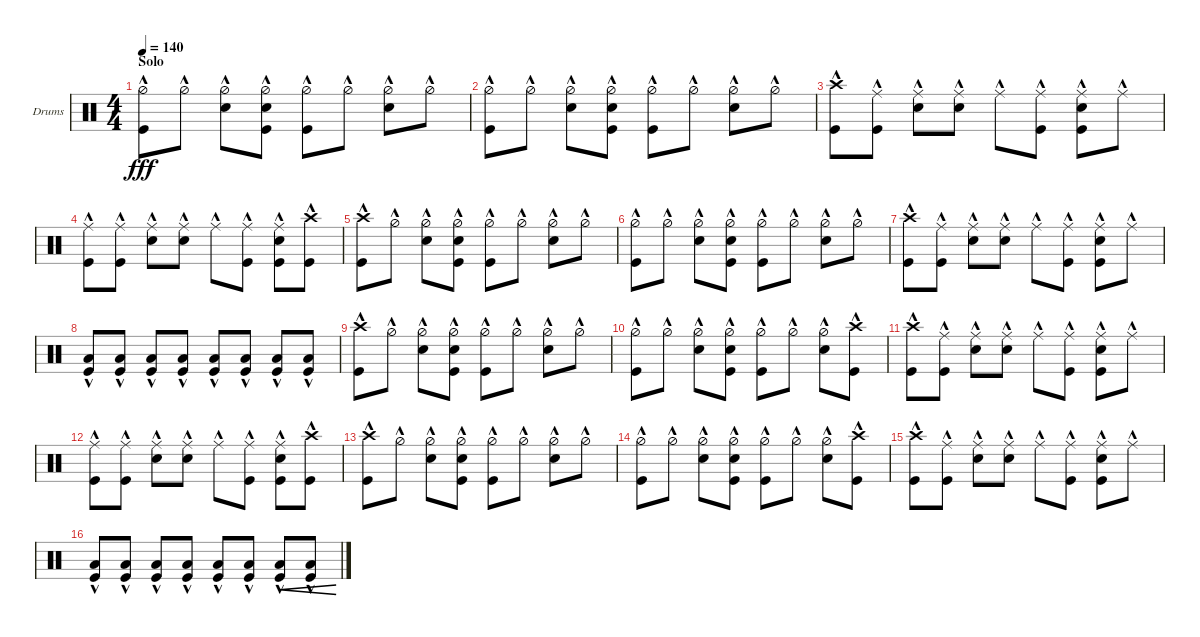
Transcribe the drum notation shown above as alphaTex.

\bracketExtendMode groupsimilarinstruments
\firstSystemTrackNameOrientation horizontal
\otherSystemsTrackNameOrientation horizontal
\track ("BigMc" "Drums") {instrument percussion}
\staff {score}
\articulation defaults
\ts (4 4)
\section ("" "Solo")
\tempo 140
\clef neutral
\ks c
("Hi-Hat (half)"{hac} "Kick (hit)"{hac}).8{dy fff} "Hi-Hat (half)"{hac}.8 ("Hi-Hat (half)"{hac} "Snare (hit) 2"{hac}).8 ("Hi-Hat (half)"{hac} "Kick (hit)"{hac} "Snare (hit) 2"{hac}).8 ("Hi-Hat (half)"{hac} "Kick (hit)"{hac}).8 "Hi-Hat (half)"{hac}.8 ("Hi-Hat (half)"{hac} "Snare (hit) 2"{hac}).8 "Hi-Hat (half)"{hac}.8 |
("Hi-Hat (half)"{hac} "Kick (hit)"{hac}).8 "Hi-Hat (half)"{hac}.8 ("Hi-Hat (half)"{hac} "Snare (hit) 2"{hac}).8 ("Hi-Hat (half)"{hac} "Kick (hit)"{hac} "Snare (hit) 2"{hac}).8 ("Hi-Hat (half)"{hac} "Kick (hit)"{hac}).8 "Hi-Hat (half)"{hac}.8 ("Hi-Hat (half)"{hac} "Snare (hit) 2"{hac}).8 "Hi-Hat (half)"{hac}.8 |
("Kick (hit)"{hac} "Crash high (hit)"{hac}).8 ("Ride (middle)"{hac} "Kick (hit)"{hac}).8 ("Ride (middle)"{hac} "Snare (hit) 2"{hac}).8 ("Ride (middle)"{hac} "Snare (hit) 2"{hac}).8 "Ride (middle)"{hac}.8 ("Ride (middle)"{hac} "Kick (hit)"{hac}).8 ("Ride (middle)"{hac} "Snare (hit) 2"{hac} "Kick (hit)"{hac}).8 "Ride (middle)"{hac}.8 |
("Kick (hit)"{hac} "Ride (middle)"{hac}).8 ("Ride (middle)"{hac} "Kick (hit)"{hac}).8 ("Ride (middle)"{hac} "Snare (hit) 2"{hac}).8 ("Ride (middle)"{hac} "Snare (hit) 2"{hac}).8 "Ride (middle)"{hac}.8 ("Ride (middle)"{hac} "Kick (hit)"{hac}).8 ("Ride (middle)"{hac} "Snare (hit) 2"{hac} "Kick (hit)"{hac}).8 ("Crash high (hit)"{hac} "Kick (hit)"{hac}).8 |
("Kick (hit)"{hac} "Crash high (hit)"{hac}).8 "Hi-Hat (half)"{hac}.8 ("Hi-Hat (half)"{hac} "Snare (hit) 2"{hac}).8 ("Hi-Hat (half)"{hac} "Kick (hit)"{hac} "Snare (hit) 2"{hac}).8 ("Hi-Hat (half)"{hac} "Kick (hit)"{hac}).8 "Hi-Hat (half)"{hac}.8 ("Hi-Hat (half)"{hac} "Snare (hit) 2"{hac}).8 "Hi-Hat (half)"{hac}.8 |
("Hi-Hat (half)"{hac} "Kick (hit)"{hac}).8 "Hi-Hat (half)"{hac}.8 ("Hi-Hat (half)"{hac} "Snare (hit) 2"{hac}).8 ("Hi-Hat (half)"{hac} "Kick (hit)"{hac} "Snare (hit) 2"{hac}).8 ("Hi-Hat (half)"{hac} "Kick (hit)"{hac}).8 "Hi-Hat (half)"{hac}.8 ("Hi-Hat (half)"{hac} "Snare (hit) 2"{hac}).8 "Hi-Hat (half)"{hac}.8 |
("Kick (hit)"{hac} "Crash high (hit)"{hac}).8 ("Ride (middle)"{hac} "Kick (hit)"{hac}).8 ("Ride (middle)"{hac} "Snare (hit) 2"{hac}).8 ("Ride (middle)"{hac} "Snare (hit) 2"{hac}).8 "Ride (middle)"{hac}.8 ("Ride (middle)"{hac} "Kick (hit)"{hac}).8 ("Ride (middle)"{hac} "Snare (hit) 2"{hac} "Kick (hit)"{hac}).8 "Ride (middle)"{hac}.8 |
("Low Tom (hit)"{hac} "Kick (hit)"{hac}).8 ("Low Tom (hit)"{hac} "Kick (hit)"{hac}).8 ("Low Tom (hit)"{hac} "Kick (hit)"{hac}).8 ("Low Tom (hit)"{hac} "Kick (hit)"{hac}).8 ("Low Tom (hit)"{hac} "Kick (hit)"{hac}).8 ("Low Tom (hit)"{hac} "Kick (hit)"{hac}).8 ("Low Tom (hit)"{hac} "Kick (hit)"{hac}).8 ("Low Tom (hit)"{hac} "Kick (hit)"{hac}).8 |
("Kick (hit)"{hac} "Crash high (hit)"{hac}).8 "Hi-Hat (half)"{hac}.8 ("Hi-Hat (half)"{hac} "Snare (hit) 2"{hac}).8 ("Hi-Hat (half)"{hac} "Kick (hit)"{hac} "Snare (hit) 2"{hac}).8 ("Hi-Hat (half)"{hac} "Kick (hit)"{hac}).8 "Hi-Hat (half)"{hac}.8 ("Hi-Hat (half)"{hac} "Snare (hit) 2"{hac}).8 "Hi-Hat (half)"{hac}.8 |
("Hi-Hat (half)"{hac} "Kick (hit)"{hac}).8 "Hi-Hat (half)"{hac}.8 ("Hi-Hat (half)"{hac} "Snare (hit) 2"{hac}).8 ("Hi-Hat (half)"{hac} "Kick (hit)"{hac} "Snare (hit) 2"{hac}).8 ("Hi-Hat (half)"{hac} "Kick (hit)"{hac}).8 "Hi-Hat (half)"{hac}.8 ("Hi-Hat (half)"{hac} "Snare (hit) 2"{hac}).8 ("Crash high (hit)"{hac} "Kick (hit)"{hac}).8 |
("Kick (hit)"{hac} "Crash high (hit)"{hac}).8 ("Ride (middle)"{hac} "Kick (hit)"{hac}).8 ("Ride (middle)"{hac} "Snare (hit) 2"{hac}).8 ("Ride (middle)"{hac} "Snare (hit) 2"{hac}).8 "Ride (middle)"{hac}.8 ("Ride (middle)"{hac} "Kick (hit)"{hac}).8 ("Ride (middle)"{hac} "Snare (hit) 2"{hac} "Kick (hit)"{hac}).8 "Ride (middle)"{hac}.8 |
("Kick (hit)"{hac} "Ride (middle)"{hac}).8 ("Ride (middle)"{hac} "Kick (hit)"{hac}).8 ("Ride (middle)"{hac} "Snare (hit) 2"{hac}).8 ("Ride (middle)"{hac} "Snare (hit) 2"{hac}).8 "Ride (middle)"{hac}.8 ("Ride (middle)"{hac} "Kick (hit)"{hac}).8 ("Ride (middle)"{hac} "Snare (hit) 2"{hac} "Kick (hit)"{hac}).8 ("Crash high (hit)"{hac} "Kick (hit)"{hac}).8 |
("Kick (hit)"{hac} "Crash high (hit)"{hac}).8 "Hi-Hat (half)"{hac}.8 ("Hi-Hat (half)"{hac} "Snare (hit) 2"{hac}).8 ("Hi-Hat (half)"{hac} "Kick (hit)"{hac} "Snare (hit) 2"{hac}).8 ("Hi-Hat (half)"{hac} "Kick (hit)"{hac}).8 "Hi-Hat (half)"{hac}.8 ("Hi-Hat (half)"{hac} "Snare (hit) 2"{hac}).8 "Hi-Hat (half)"{hac}.8 |
("Hi-Hat (half)"{hac} "Kick (hit)"{hac}).8 "Hi-Hat (half)"{hac}.8 ("Hi-Hat (half)"{hac} "Snare (hit) 2"{hac}).8 ("Hi-Hat (half)"{hac} "Kick (hit)"{hac} "Snare (hit) 2"{hac}).8 ("Hi-Hat (half)"{hac} "Kick (hit)"{hac}).8 "Hi-Hat (half)"{hac}.8 ("Hi-Hat (half)"{hac} "Snare (hit) 2"{hac}).8 ("Crash high (hit)"{hac} "Kick (hit)"{hac}).8 |
("Kick (hit)"{hac} "Crash high (hit)"{hac}).8 ("Ride (middle)"{hac} "Kick (hit)"{hac}).8 ("Ride (middle)"{hac} "Snare (hit) 2"{hac}).8 ("Ride (middle)"{hac} "Snare (hit) 2"{hac}).8 "Ride (middle)"{hac}.8 ("Ride (middle)"{hac} "Kick (hit)"{hac}).8 ("Ride (middle)"{hac} "Snare (hit) 2"{hac} "Kick (hit)"{hac}).8 "Ride (middle)"{hac}.8 |
("Low Tom (hit)"{hac} "Kick (hit)"{hac}).8 ("Low Tom (hit)"{hac} "Kick (hit)"{hac}).8 ("Low Tom (hit)"{hac} "Kick (hit)"{hac}).8 ("Low Tom (hit)"{hac} "Kick (hit)"{hac}).8 ("Low Tom (hit)"{hac} "Kick (hit)"{hac}).8 ("Low Tom (hit)"{hac} "Kick (hit)"{hac}).8 ("Low Tom (hit)"{hac} "Kick (hit)"{hac}).8{cre} ("Low Tom (hit)"{hac} "Kick (hit)"{hac}).8{cre}
